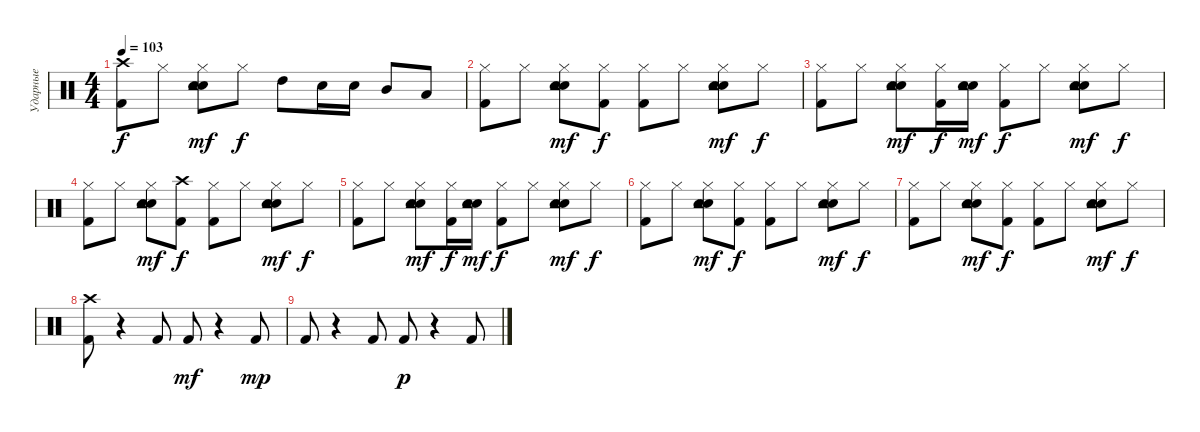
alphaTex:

\track ("Ударные" "Ударные") {instrument percussion}
\staff {score}
\articulation defaults
\ts (4 4)
\tempo 103
\clef neutral
\ks c
("Crash high (hit)" "Kick (hit) 2").8{dy f} "Hi-Hat (closed)".8 ("Hi-Hat (closed)" "Electric Snare (hit)" "Snare (hit) 2" "Tambourine (hit)").8{dy mf} "Hi-Hat (closed)".8{dy f} "High Tom (hit)".8 "Electric Snare (hit)".16 "Electric Snare (hit)".16 "Mid Tom (hit)".8 "Low Tom (hit)".8 |
("Hi-Hat (closed)" "Kick (hit) 2").8 "Hi-Hat (closed)".8 ("Hi-Hat (closed)" "Electric Snare (hit)" "Snare (hit) 2" "Tambourine (hit)").8{dy mf} ("Hi-Hat (closed)" "Kick (hit) 2").8{dy f} ("Hi-Hat (closed)" "Kick (hit) 2").8 "Hi-Hat (closed)".8 ("Hi-Hat (closed)" "Electric Snare (hit)" "Snare (hit) 2" "Tambourine (hit)").8{dy mf} "Hi-Hat (closed)".8{dy f} |
("Hi-Hat (closed)" "Kick (hit) 2").8 "Hi-Hat (closed)".8 ("Hi-Hat (closed)" "Electric Snare (hit)" "Snare (hit) 2" "Tambourine (hit)").8{dy mf} ("Hi-Hat (closed)" "Kick (hit) 2").16{dy f} ("Electric Snare (hit)" "Snare (hit) 2" "Tambourine (hit)").16{dy mf} ("Hi-Hat (closed)" "Kick (hit) 2").8{dy f} "Hi-Hat (closed)".8 ("Hi-Hat (closed)" "Electric Snare (hit)" "Snare (hit) 2" "Tambourine (hit)").8{dy mf} "Hi-Hat (closed)".8{dy f} |
("Hi-Hat (closed)" "Kick (hit) 2").8 "Hi-Hat (closed)".8 ("Hi-Hat (closed)" "Electric Snare (hit)" "Snare (hit) 2" "Tambourine (hit)").8{dy mf} ("Crash high (hit)" "Kick (hit) 2").8{dy f} ("Hi-Hat (closed)" "Kick (hit) 2").8 "Hi-Hat (closed)".8 ("Hi-Hat (closed)" "Electric Snare (hit)" "Snare (hit) 2" "Tambourine (hit)").8{dy mf} "Hi-Hat (closed)".8{dy f} |
("Hi-Hat (closed)" "Kick (hit) 2").8 "Hi-Hat (closed)".8 ("Hi-Hat (closed)" "Electric Snare (hit)" "Snare (hit) 2" "Tambourine (hit)").8{dy mf} ("Hi-Hat (closed)" "Kick (hit) 2").16{dy f} ("Electric Snare (hit)" "Snare (hit) 2" "Tambourine (hit)").16{dy mf} ("Hi-Hat (closed)" "Kick (hit) 2").8{dy f} "Hi-Hat (closed)".8 ("Hi-Hat (closed)" "Electric Snare (hit)" "Snare (hit) 2" "Tambourine (hit)").8{dy mf} "Hi-Hat (closed)".8{dy f} |
("Hi-Hat (closed)" "Kick (hit) 2").8 "Hi-Hat (closed)".8 ("Hi-Hat (closed)" "Electric Snare (hit)" "Snare (hit) 2" "Tambourine (hit)").8{dy mf} ("Hi-Hat (closed)" "Kick (hit) 2").8{dy f} ("Hi-Hat (closed)" "Kick (hit) 2").8 "Hi-Hat (closed)".8 ("Hi-Hat (closed)" "Electric Snare (hit)" "Snare (hit) 2" "Tambourine (hit)").8{dy mf} "Hi-Hat (closed)".8{dy f} |
("Hi-Hat (closed)" "Kick (hit) 2").8 "Hi-Hat (closed)".8 ("Hi-Hat (closed)" "Electric Snare (hit)" "Snare (hit) 2" "Tambourine (hit)").8{dy mf} ("Hi-Hat (closed)" "Kick (hit) 2").8{dy f} ("Hi-Hat (closed)" "Kick (hit) 2").8 "Hi-Hat (closed)".8 ("Hi-Hat (closed)" "Electric Snare (hit)" "Snare (hit) 2" "Tambourine (hit)").8{dy mf} "Hi-Hat (closed)".8{dy f} |
("Crash high (hit)" "Kick (hit) 2").8 r.4 "Kick (hit) 2".8 "Kick (hit) 2".8{dy mf} r.4 "Kick (hit) 2".8{dy mp} |
"Kick (hit) 2".8 r.4 "Kick (hit) 2".8 "Kick (hit) 2".8{dy p} r.4 "Kick (hit) 2".8
